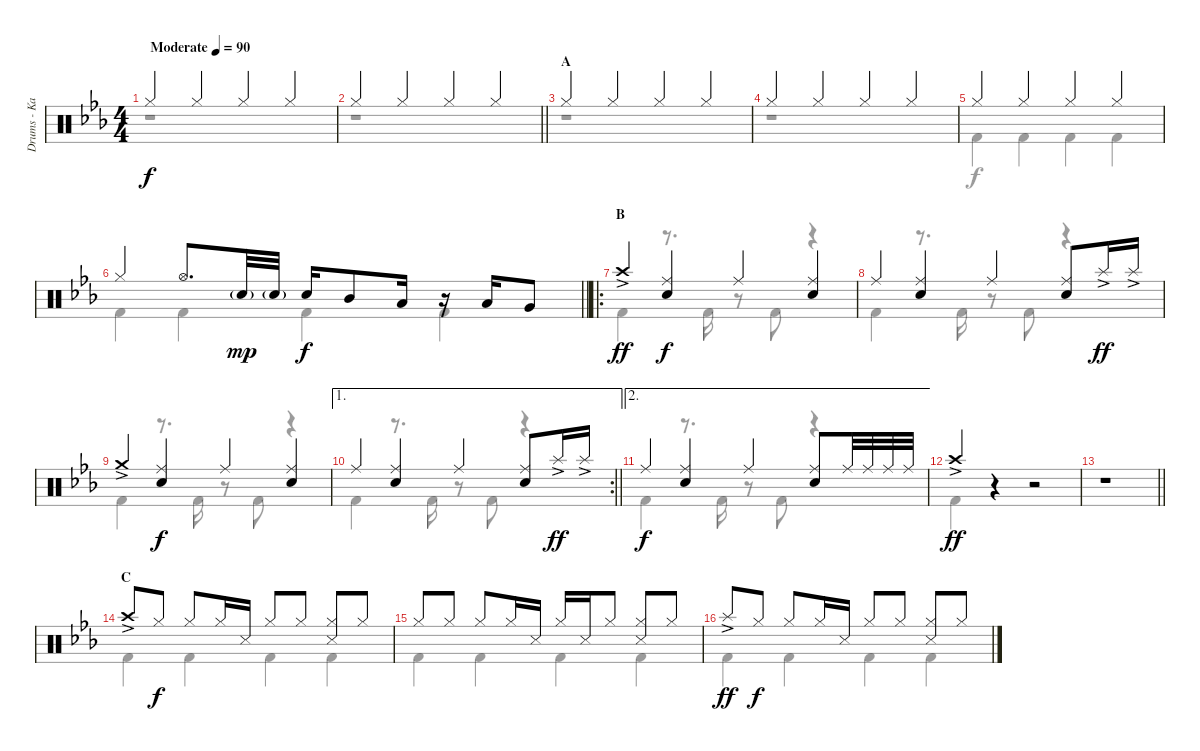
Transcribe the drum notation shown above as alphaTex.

\track ("Drums - Kai" "Drums - Ka") {instrument percussion}
\staff {score}
\articulation defaults
\voice
\ts (4 4)
\tempo (90 "Moderate")
\clef neutral
\ks eb "Hi-Hat (closed)".4{dy f} "Hi-Hat (closed)".4 "Hi-Hat (closed)".4 "Hi-Hat (closed)".4
|
\barLineRight lightlight "Hi-Hat (closed)".4 "Hi-Hat (closed)".4 "Hi-Hat (closed)".4 "Hi-Hat (closed)".4
|
\section ("" "A")
"Hi-Hat (closed)".4 "Hi-Hat (closed)".4 "Hi-Hat (closed)".4 "Hi-Hat (closed)".4 |
"Hi-Hat (closed)".4 "Hi-Hat (closed)".4 "Hi-Hat (closed)".4 "Hi-Hat (closed)".4 |
"Hi-Hat (closed)".4 "Hi-Hat (closed)".4 "Hi-Hat (closed)".4 "Hi-Hat (closed)".4 |
\barLineRight lightlight "Hi-Hat (closed)".4 "Hi-Hat (open)".8{d} "Snare (hit) 2"{g}.32{dy mp} "Snare (hit) 2"{g}.32 "Snare (hit) 2".16{dy f} "Mid Tom (hit)".8 "Low Tom (hit)".16
r.16 "Low Tom (hit)".16 "Very Low Tom (hit)".8 |
\ro
\section ("" "B")
"Crash high (hit)"{ac}.4{dy ff} ("Ride (middle)" "Snare (hit) 2").4{dy f} "Ride (middle)".4 ("Ride (middle)" "Snare (hit) 2").4 |
"Ride (middle)".4 ("Ride (middle)" "Snare (hit) 2").4 "Ride (middle)".4 ("Ride (middle)" "Snare (hit) 2").8 "Splash (hit)"{ac}.16{dy ff} "Splash (hit)"{ac}.16 |
"Crash medium (hit)"{ac}.4 ("Ride (middle)" "Snare (hit) 2").4{dy f} "Ride (middle)".4 ("Ride (middle)" "Snare (hit) 2").4 |
\ae 1
\rc 2
\barLineRight lightlight "Ride (middle)".4
("Ride (middle)" "Snare (hit) 2").4 "Ride (middle)".4 ("Ride (middle)" "Snare (hit) 2").8 "Splash (hit)"{ac}.16{dy ff} "Splash (hit)"{ac}.16 |
\ae 2
\section ("" "")
"Ride (middle)".4{dy f} ("Ride (middle)" "Snare (hit) 2").4 "Ride (middle)".4 ("Ride (middle)" "Snare (hit) 2").8 "Ride (middle)".32 "Ride (middle)".32 "Ride (middle)".32 "Ride (middle)".32 |
"Crash high (hit)"{ac}.4{dy ff} r.4 r.2 |
\barLineRight lightlight
r.1 |
\section ("" "C")
"Crash high (hit)"{ac}.8 "Hi-Hat (closed)".8{dy f} "Hi-Hat (closed)".8 "Hi-Hat (closed)".16 "Snare (side stick) 3".16 "Hi-Hat (closed)".8 "Hi-Hat (closed)".8 ("Hi-Hat (closed)" "Snare (side stick) 3").8 "Hi-Hat (closed)".8 |
"Hi-Hat (closed)".8 "Hi-Hat (closed)".8 "Hi-Hat (closed)".8 "Hi-Hat (closed)".16 "Snare (side stick) 3".16 "Hi-Hat (closed)".16 "Snare (side stick) 3".16 "Hi-Hat (closed)".8 ("Hi-Hat (closed)" "Snare (side stick) 3").8 "Hi-Hat (closed)".8 |
"Splash (hit)"{ac}.8{dy ff} "Hi-Hat (closed)".8{dy f} "Hi-Hat (closed)".8 "Hi-Hat (closed)".16 "Snare (side stick) 3".16 "Hi-Hat (closed)".8 "Hi-Hat (closed)".8 ("Hi-Hat (closed)" "Snare (side stick) 3").8 "Hi-Hat (closed)".8
\voice
\clef neutral
\ottava regular
\simile none
\ks eb
r.1{dy f} |
\barLineRight lightlight
r.1 |
r.1 |
r.1 |
"Kick (hit) 2".4 "Kick (hit) 2".4 "Kick (hit) 2".4 "Kick (hit) 2".4 |
\barLineRight lightlight "Kick (hit) 2".4 "Kick (hit) 2".4 "Kick (hit) 2".4 "Kick (hit) 2".4
|
"Kick (hit) 2".4 r.8{d} "Kick (hit) 2".16 r.8 "Kick (hit) 2".8 r.4 |
"Kick (hit) 2".4 r.8{d} "Kick (hit) 2".16 r.8 "Kick (hit) 2".8 r.4 |
"Kick (hit) 2".4 r.8{d} "Kick (hit) 2".16 r.8 "Kick (hit) 2".8 r.4 |
\barLineRight lightlight "Kick (hit) 2".4
r.8{d} "Kick (hit) 2".16 r.8 "Kick (hit) 2".8 r.4 |
"Kick (hit) 2".4 r.8{d} "Kick (hit) 2".16 r.8 "Kick (hit) 2".8 r.4 |
"Kick (hit) 2".4 r.4 r.2 |
\barLineRight lightlight
|
"Kick (hit) 2".4 "Kick (hit) 2".4 "Kick (hit) 2".4 "Kick (hit) 2".4 |
"Kick (hit) 2".4 "Kick (hit) 2".4 "Kick (hit) 2".4 "Kick (hit) 2".4 |
"Kick (hit) 2".4 "Kick (hit) 2".4 "Kick (hit) 2".4 "Kick (hit) 2".4
